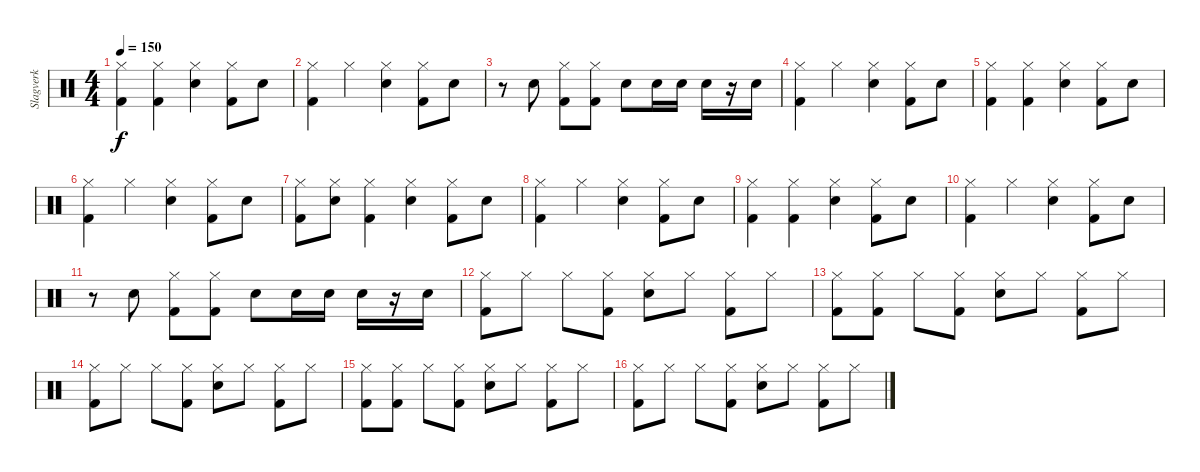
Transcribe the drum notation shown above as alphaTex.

\track ("Slagverk" "Slagverk") {instrument percussion}
\staff {score}
\articulation defaults
\ts (4 4)
\tempo 150
\clef neutral
\ks c
("Hi-Hat (closed)" "Kick (hit) 2").4{dy f} ("Hi-Hat (closed)" "Kick (hit) 2").4 ("Hi-Hat (closed)" "Electric Snare (hit)").4 ("Hi-Hat (closed)" "Kick (hit) 2").8 "Electric Snare (hit)".8 |
("Hi-Hat (closed)" "Kick (hit) 2").4 "Hi-Hat (closed)".4 ("Hi-Hat (closed)" "Electric Snare (hit)").4 ("Hi-Hat (closed)" "Kick (hit) 2").8 "Electric Snare (hit)".8 |
r.8 "Electric Snare (hit)".8 ("Hi-Hat (closed)" "Kick (hit) 2").8 ("Hi-Hat (closed)" "Kick (hit) 2").8 "Electric Snare (hit)".8 "Electric Snare (hit)".16 "Electric Snare (hit)".16 "Electric Snare (hit)".16 r.16 "Electric Snare (hit)".16 |
("Hi-Hat (closed)" "Kick (hit) 2").4 "Hi-Hat (closed)".4 ("Hi-Hat (closed)" "Electric Snare (hit)").4 ("Hi-Hat (closed)" "Kick (hit) 2").8 "Electric Snare (hit)".8 |
("Hi-Hat (closed)" "Kick (hit) 2").4 ("Hi-Hat (closed)" "Kick (hit) 2").4 ("Hi-Hat (closed)" "Electric Snare (hit)").4 ("Hi-Hat (closed)" "Kick (hit) 2").8 "Electric Snare (hit)".8 |
("Hi-Hat (closed)" "Kick (hit) 2").4 "Hi-Hat (closed)".4 ("Hi-Hat (closed)" "Electric Snare (hit)").4 ("Hi-Hat (closed)" "Kick (hit) 2").8 "Electric Snare (hit)".8 |
("Hi-Hat (closed)" "Kick (hit) 2").8 ("Hi-Hat (closed)" "Electric Snare (hit)").8 ("Hi-Hat (closed)" "Kick (hit) 2").4 ("Hi-Hat (closed)" "Electric Snare (hit)").4 ("Hi-Hat (closed)" "Kick (hit) 2").8 "Electric Snare (hit)".8 |
("Hi-Hat (closed)" "Kick (hit) 2").4 "Hi-Hat (closed)".4 ("Hi-Hat (closed)" "Electric Snare (hit)").4 ("Hi-Hat (closed)" "Kick (hit) 2").8 "Electric Snare (hit)".8 |
("Hi-Hat (closed)" "Kick (hit) 2").4 ("Hi-Hat (closed)" "Kick (hit) 2").4 ("Hi-Hat (closed)" "Electric Snare (hit)").4 ("Hi-Hat (closed)" "Kick (hit) 2").8 "Electric Snare (hit)".8 |
("Hi-Hat (closed)" "Kick (hit) 2").4 "Hi-Hat (closed)".4 ("Hi-Hat (closed)" "Electric Snare (hit)").4 ("Hi-Hat (closed)" "Kick (hit) 2").8 "Electric Snare (hit)".8 |
r.8 "Electric Snare (hit)".8 ("Hi-Hat (closed)" "Kick (hit) 2").8 ("Hi-Hat (closed)" "Kick (hit) 2").8 "Electric Snare (hit)".8 "Electric Snare (hit)".16 "Electric Snare (hit)".16 "Electric Snare (hit)".16 r.16 "Electric Snare (hit)".16 |
("Hi-Hat (closed)" "Kick (hit) 2").8 "Hi-Hat (closed)".8 "Hi-Hat (closed)".8 ("Hi-Hat (closed)" "Kick (hit) 2").8 ("Hi-Hat (closed)" "Electric Snare (hit)").8 "Hi-Hat (closed)".8 ("Hi-Hat (closed)" "Kick (hit) 2").8 "Hi-Hat (closed)".8 |
("Hi-Hat (closed)" "Kick (hit) 2").8 ("Hi-Hat (closed)" "Kick (hit) 2").8 "Hi-Hat (closed)".8 ("Hi-Hat (closed)" "Kick (hit) 2").8 ("Hi-Hat (closed)" "Electric Snare (hit)").8 "Hi-Hat (closed)".8 ("Hi-Hat (closed)" "Kick (hit) 2").8 "Hi-Hat (closed)".8 |
("Hi-Hat (closed)" "Kick (hit) 2").8 "Hi-Hat (closed)".8 "Hi-Hat (closed)".8 ("Hi-Hat (closed)" "Kick (hit) 2").8 ("Hi-Hat (closed)" "Electric Snare (hit)").8 "Hi-Hat (closed)".8 ("Hi-Hat (closed)" "Kick (hit) 2").8 "Hi-Hat (closed)".8 |
("Hi-Hat (closed)" "Kick (hit) 2").8 ("Hi-Hat (closed)" "Kick (hit) 2").8 "Hi-Hat (closed)".8 ("Hi-Hat (closed)" "Kick (hit) 2").8 ("Hi-Hat (closed)" "Electric Snare (hit)").8 "Hi-Hat (closed)".8 ("Hi-Hat (closed)" "Kick (hit) 2").8 "Hi-Hat (closed)".8 |
("Hi-Hat (closed)" "Kick (hit) 2").8 "Hi-Hat (closed)".8 "Hi-Hat (closed)".8 ("Hi-Hat (closed)" "Kick (hit) 2").8 ("Hi-Hat (closed)" "Electric Snare (hit)").8 "Hi-Hat (closed)".8 ("Hi-Hat (closed)" "Kick (hit) 2").8 "Hi-Hat (closed)".8
